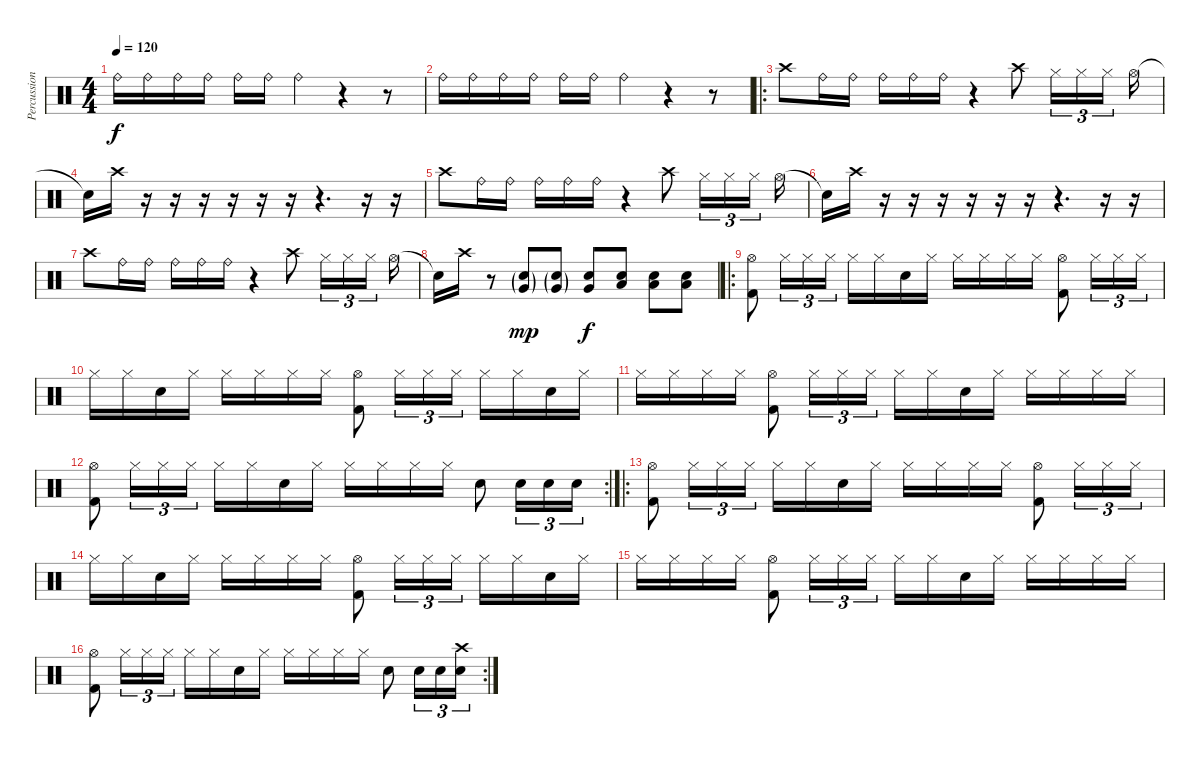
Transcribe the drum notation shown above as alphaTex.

\track ("Percussion" "Percussion") {instrument percussion}
\staff {score}
\articulation defaults
\ts (4 4)
\tempo 120
\clef neutral
\ks c "Ride (bell)".16{dy f} "Ride (bell)".16 "Ride (bell)".16 "Ride (bell)".16 "Ride (bell)".16 "Ride (bell)".16 "Ride (bell)".4
r.4 r.8 |
"Ride (bell)".16 "Ride (bell)".16 "Ride (bell)".16 "Ride (bell)".16 "Ride (bell)".16 "Ride (bell)".16 "Ride (bell)".4 r.4 r.8 |
\ro "Crash high (hit)".8 "Ride (bell)".16 "Ride (bell)".16 "Ride (bell)".16 "Ride (bell)".16 "Ride (bell)".16
r.4 "Crash high (hit)".8 "Hi-Hat (closed)".16{tu (3 2)} "Hi-Hat (closed)".16{tu (3 2)} "Hi-Hat (closed)".16{tu (3 2)} "Hi-Hat (open)".16 |
"Snare (hit)"{t}.16 "Crash high (hit)".16 r.16 r.16 r.16 r.16 r.16 r.16 r.4{d} r.16 r.16 |
"Crash high (hit)".8 "Ride (bell)".16 "Ride (bell)".16 "Ride (bell)".16 "Ride (bell)".16 "Ride (bell)".16 r.4 "Crash high (hit)".8 "Hi-Hat (closed)".16{tu (3 2)} "Hi-Hat (closed)".16{tu (3 2)} "Hi-Hat (closed)".16{tu (3 2)} "Hi-Hat (open)".16 |
"Snare (hit)"{t}.16 "Crash high (hit)".16 r.16 r.16 r.16 r.16 r.16 r.16 r.4{d} r.16 r.16 |
"Crash high (hit)".8 "Ride (bell)".16 "Ride (bell)".16 "Ride (bell)".16 "Ride (bell)".16 "Ride (bell)".16 r.4 "Crash high (hit)".8 "Hi-Hat (closed)".16{tu (3 2)} "Hi-Hat (closed)".16{tu (3 2)} "Hi-Hat (closed)".16{tu (3 2)} "Hi-Hat (open)".16 |
"Snare (hit)"{t}.16 "Crash high (hit)".16 r.8 ("Snare (hit) 2"{g} "Very Low Tom (hit)"{g}).8{dy mp} ("Snare (hit) 2"{g} "Very Low Tom (hit)"{g}).8 ("Snare (hit) 2" "Very Low Tom (hit)").8{dy f} ("Snare (hit) 2" "Low Tom (hit)").8 ("Snare (hit) 2" "Low Tom (hit)").8 ("Snare (hit) 2" "Low Tom (hit)").8 |
\ro
("Hi-Hat (open)" "Kick (hit) 2").8 "Hi-Hat (closed)".16{tu (3 2)} "Hi-Hat (closed)".16{tu (3 2)} "Hi-Hat (closed)".16{tu (3 2)} "Hi-Hat (closed)".16 "Hi-Hat (closed)".16 "Snare (hit) 2".16 "Hi-Hat (closed)".16 "Hi-Hat (closed)".16 "Hi-Hat (closed)".16 "Hi-Hat (closed)".16 "Hi-Hat (closed)".16 ("Hi-Hat (open)" "Kick (hit) 2").8 "Hi-Hat (closed)".16{tu (3 2)} "Hi-Hat (closed)".16{tu (3 2)} "Hi-Hat (closed)".16{tu (3 2)} |
"Hi-Hat (closed)".16 "Hi-Hat (closed)".16 "Snare (hit) 2".16 "Hi-Hat (closed)".16 "Hi-Hat (closed)".16 "Hi-Hat (closed)".16 "Hi-Hat (closed)".16 "Hi-Hat (closed)".16 ("Hi-Hat (open)" "Kick (hit) 2").8 "Hi-Hat (closed)".16{tu (3 2)} "Hi-Hat (closed)".16{tu (3 2)} "Hi-Hat (closed)".16{tu (3 2)} "Hi-Hat (closed)".16 "Hi-Hat (closed)".16 "Snare (hit) 2".16 "Hi-Hat (closed)".16 |
"Hi-Hat (closed)".16 "Hi-Hat (closed)".16 "Hi-Hat (closed)".16 "Hi-Hat (closed)".16 ("Hi-Hat (open)" "Kick (hit) 2").8 "Hi-Hat (closed)".16{tu (3 2)} "Hi-Hat (closed)".16{tu (3 2)} "Hi-Hat (closed)".16{tu (3 2)} "Hi-Hat (closed)".16 "Hi-Hat (closed)".16 "Snare (hit) 2".16 "Hi-Hat (closed)".16 "Hi-Hat (closed)".16 "Hi-Hat (closed)".16 "Hi-Hat (closed)".16 "Hi-Hat (closed)".16 |
\rc 2
("Hi-Hat (open)" "Kick (hit) 2").8 "Hi-Hat (closed)".16{tu (3 2)} "Hi-Hat (closed)".16{tu (3 2)} "Hi-Hat (closed)".16{tu (3 2)} "Hi-Hat (closed)".16 "Hi-Hat (closed)".16 "Snare (hit) 2".16 "Hi-Hat (closed)".16 "Hi-Hat (closed)".16 "Hi-Hat (closed)".16 "Hi-Hat (closed)".16 "Hi-Hat (closed)".16 "Snare (hit) 2".8 "Snare (hit) 2".16{tu (3 2)} "Snare (hit) 2".16{tu (3 2)} "Snare (hit) 2".16{tu (3 2)} |
\ro
("Hi-Hat (open)" "Kick (hit) 2").8 "Hi-Hat (closed)".16{tu (3 2)} "Hi-Hat (closed)".16{tu (3 2)} "Hi-Hat (closed)".16{tu (3 2)} "Hi-Hat (closed)".16 "Hi-Hat (closed)".16 "Snare (hit) 2".16 "Hi-Hat (closed)".16 "Hi-Hat (closed)".16 "Hi-Hat (closed)".16 "Hi-Hat (closed)".16 "Hi-Hat (closed)".16 ("Hi-Hat (open)" "Kick (hit) 2").8 "Hi-Hat (closed)".16{tu (3 2)} "Hi-Hat (closed)".16{tu (3 2)} "Hi-Hat (closed)".16{tu (3 2)} |
"Hi-Hat (closed)".16 "Hi-Hat (closed)".16 "Snare (hit) 2".16 "Hi-Hat (closed)".16 "Hi-Hat (closed)".16 "Hi-Hat (closed)".16 "Hi-Hat (closed)".16 "Hi-Hat (closed)".16 ("Hi-Hat (open)" "Kick (hit) 2").8 "Hi-Hat (closed)".16{tu (3 2)} "Hi-Hat (closed)".16{tu (3 2)} "Hi-Hat (closed)".16{tu (3 2)} "Hi-Hat (closed)".16 "Hi-Hat (closed)".16 "Snare (hit) 2".16 "Hi-Hat (closed)".16 |
"Hi-Hat (closed)".16 "Hi-Hat (closed)".16 "Hi-Hat (closed)".16 "Hi-Hat (closed)".16 ("Hi-Hat (open)" "Kick (hit) 2").8 "Hi-Hat (closed)".16{tu (3 2)} "Hi-Hat (closed)".16{tu (3 2)} "Hi-Hat (closed)".16{tu (3 2)} "Hi-Hat (closed)".16 "Hi-Hat (closed)".16 "Snare (hit) 2".16 "Hi-Hat (closed)".16 "Hi-Hat (closed)".16 "Hi-Hat (closed)".16 "Hi-Hat (closed)".16 "Hi-Hat (closed)".16 |
\rc 2
("Hi-Hat (open)" "Kick (hit) 2").8 "Hi-Hat (closed)".16{tu (3 2)} "Hi-Hat (closed)".16{tu (3 2)} "Hi-Hat (closed)".16{tu (3 2)} "Hi-Hat (closed)".16 "Hi-Hat (closed)".16 "Snare (hit) 2".16 "Hi-Hat (closed)".16 "Hi-Hat (closed)".16 "Hi-Hat (closed)".16 "Hi-Hat (closed)".16 "Hi-Hat (closed)".16 "Snare (hit) 2".8 "Snare (hit) 2".16{tu (3 2)} "Snare (hit) 2".16{tu (3 2)} ("Snare (hit) 2" "Crash high (hit)").16{tu (3 2)}
